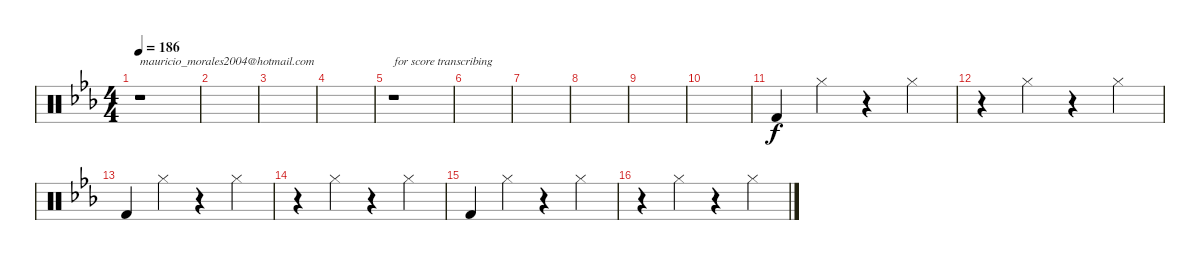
\track "" {instrument percussion}
\staff {score}
\articulation defaults
\ts (4 4)
\tempo 186
\clef neutral
\ks eb
r.1{txt "mauricio_morales2004@hotmail.com" dy f} |
|
|
|
r.1{txt "for score transcribing"} |
|
|
|
|
|
"Kick (hit) 2".4 "Hi-Hat (closed)".4 r.4 "Hi-Hat (closed)".4 |
r.4 "Hi-Hat (closed)".4 r.4 "Hi-Hat (closed)".4 |
"Kick (hit) 2".4 "Hi-Hat (closed)".4 r.4 "Hi-Hat (closed)".4 |
r.4 "Hi-Hat (closed)".4 r.4 "Hi-Hat (closed)".4 |
"Kick (hit) 2".4 "Hi-Hat (closed)".4 r.4 "Hi-Hat (closed)".4 |
r.4 "Hi-Hat (closed)".4 r.4 "Hi-Hat (closed)".4
